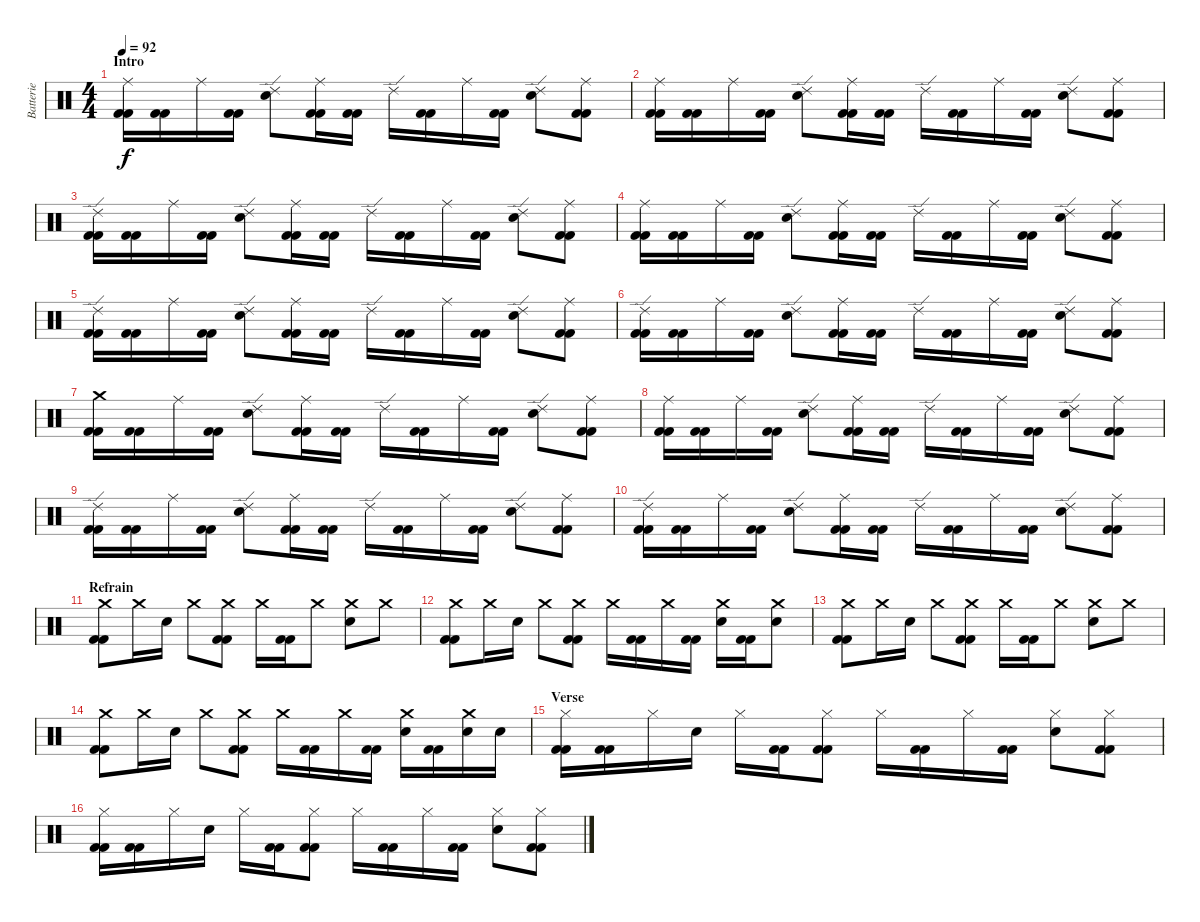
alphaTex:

\track ("Batterie" "Batterie") {instrument percussion}
\staff {score}
\articulation defaults
\ts (4 4)
\section ("" "Intro")
\tempo 92
\clef neutral
\ks c
("Kick (hit) 2" "Ride (middle)" "Kick (hit) 2").16{dy f} ("Kick (hit) 2" "Kick (hit) 2").16 "Ride (middle)".16 ("Kick (hit) 2" "Kick (hit) 2").16 ("Ride (edge) 2" "Electric Snare (hit)").8 ("Kick (hit) 2" "Ride (middle)" "Kick (hit) 2").16 ("Kick (hit) 2" "Kick (hit) 2").16 "Ride (edge) 2".16 ("Kick (hit) 2" "Kick (hit) 2").16 "Ride (middle)".16 ("Kick (hit) 2" "Kick (hit) 2").16 ("Ride (edge) 2" "Electric Snare (hit)").8 ("Kick (hit) 2" "Ride (middle)" "Kick (hit) 2").8 |
("Kick (hit) 2" "Ride (middle)" "Kick (hit) 2").16 ("Kick (hit) 2" "Kick (hit) 2").16 "Ride (middle)".16 ("Kick (hit) 2" "Kick (hit) 2").16 ("Ride (edge) 2" "Electric Snare (hit)").8 ("Kick (hit) 2" "Ride (middle)" "Kick (hit) 2").16 ("Kick (hit) 2" "Kick (hit) 2").16 "Ride (edge) 2".16 ("Kick (hit) 2" "Kick (hit) 2").16 "Ride (middle)".16 ("Kick (hit) 2" "Kick (hit) 2").16 ("Ride (edge) 2" "Electric Snare (hit)").8 ("Kick (hit) 2" "Ride (middle)" "Kick (hit) 2").8 |
("Kick (hit) 2" "Ride (edge) 2" "Kick (hit) 2").16 ("Kick (hit) 2" "Kick (hit) 2").16 "Ride (middle)".16 ("Kick (hit) 2" "Kick (hit) 2").16 ("Ride (edge) 2" "Electric Snare (hit)").8 ("Kick (hit) 2" "Ride (middle)" "Kick (hit) 2").16 ("Kick (hit) 2" "Kick (hit) 2").16 "Ride (edge) 2".16 ("Kick (hit) 2" "Kick (hit) 2").16 "Ride (middle)".16 ("Kick (hit) 2" "Kick (hit) 2").16 ("Ride (edge) 2" "Electric Snare (hit)").8 ("Kick (hit) 2" "Ride (middle)" "Kick (hit) 2").8 |
("Kick (hit) 2" "Ride (middle)" "Kick (hit) 2").16 ("Kick (hit) 2" "Kick (hit) 2").16 "Ride (middle)".16 ("Kick (hit) 2" "Kick (hit) 2").16 ("Ride (edge) 2" "Electric Snare (hit)").8 ("Kick (hit) 2" "Ride (middle)" "Kick (hit) 2").16 ("Kick (hit) 2" "Kick (hit) 2").16 "Ride (edge) 2".16 ("Kick (hit) 2" "Kick (hit) 2").16 "Ride (middle)".16 ("Kick (hit) 2" "Kick (hit) 2").16 ("Ride (edge) 2" "Electric Snare (hit)").8 ("Kick (hit) 2" "Ride (middle)" "Kick (hit) 2").8 |
("Kick (hit) 2" "Ride (edge) 2" "Kick (hit) 2").16 ("Kick (hit) 2" "Kick (hit) 2").16 "Ride (middle)".16 ("Kick (hit) 2" "Kick (hit) 2").16 ("Ride (edge) 2" "Electric Snare (hit)").8 ("Kick (hit) 2" "Ride (middle)" "Kick (hit) 2").16 ("Kick (hit) 2" "Kick (hit) 2").16 "Ride (edge) 2".16 ("Kick (hit) 2" "Kick (hit) 2").16 "Ride (middle)".16 ("Kick (hit) 2" "Kick (hit) 2").16 ("Ride (edge) 2" "Electric Snare (hit)").8 ("Kick (hit) 2" "Ride (middle)" "Kick (hit) 2").8 |
("Kick (hit) 2" "Ride (edge) 2" "Kick (hit) 2").16 ("Kick (hit) 2" "Kick (hit) 2").16 "Ride (middle)".16 ("Kick (hit) 2" "Kick (hit) 2").16 ("Ride (edge) 2" "Electric Snare (hit)").8 ("Kick (hit) 2" "Ride (middle)" "Kick (hit) 2").16 ("Kick (hit) 2" "Kick (hit) 2").16 "Ride (edge) 2".16 ("Kick (hit) 2" "Kick (hit) 2").16 "Ride (middle)".16 ("Kick (hit) 2" "Kick (hit) 2").16 ("Ride (edge) 2" "Electric Snare (hit)").8 ("Kick (hit) 2" "Ride (middle)" "Kick (hit) 2").8 |
("Kick (hit) 2" "Crash medium (hit)" "Kick (hit) 2").16 ("Kick (hit) 2" "Kick (hit) 2").16 "Ride (middle)".16 ("Kick (hit) 2" "Kick (hit) 2").16 ("Ride (edge) 2" "Electric Snare (hit)").8 ("Kick (hit) 2" "Ride (middle)" "Kick (hit) 2").16 ("Kick (hit) 2" "Kick (hit) 2").16 "Ride (edge) 2".16 ("Kick (hit) 2" "Kick (hit) 2").16 "Ride (middle)".16 ("Kick (hit) 2" "Kick (hit) 2").16 ("Ride (edge) 2" "Electric Snare (hit)").8 ("Kick (hit) 2" "Ride (middle)" "Kick (hit) 2").8 |
("Kick (hit) 2" "Ride (middle)" "Kick (hit) 2").16 ("Kick (hit) 2" "Kick (hit) 2").16 "Ride (middle)".16 ("Kick (hit) 2" "Kick (hit) 2").16 ("Ride (edge) 2" "Electric Snare (hit)").8 ("Kick (hit) 2" "Ride (middle)" "Kick (hit) 2").16 ("Kick (hit) 2" "Kick (hit) 2").16 "Ride (edge) 2".16 ("Kick (hit) 2" "Kick (hit) 2").16 "Ride (middle)".16 ("Kick (hit) 2" "Kick (hit) 2").16 ("Ride (edge) 2" "Electric Snare (hit)").8 ("Kick (hit) 2" "Ride (middle)" "Kick (hit) 2").8 |
("Kick (hit) 2" "Ride (edge) 2" "Kick (hit) 2").16 ("Kick (hit) 2" "Kick (hit) 2").16 "Ride (middle)".16 ("Kick (hit) 2" "Kick (hit) 2").16 ("Ride (edge) 2" "Electric Snare (hit)").8 ("Kick (hit) 2" "Ride (middle)" "Kick (hit) 2").16 ("Kick (hit) 2" "Kick (hit) 2").16 "Ride (edge) 2".16 ("Kick (hit) 2" "Kick (hit) 2").16 "Ride (middle)".16 ("Kick (hit) 2" "Kick (hit) 2").16 ("Ride (edge) 2" "Electric Snare (hit)").8 ("Kick (hit) 2" "Ride (middle)" "Kick (hit) 2").8 |
("Kick (hit) 2" "Ride (edge) 2" "Kick (hit) 2").16 ("Kick (hit) 2" "Kick (hit) 2").16 "Ride (middle)".16 ("Kick (hit) 2" "Kick (hit) 2").16 ("Ride (edge) 2" "Electric Snare (hit)").8 ("Kick (hit) 2" "Ride (middle)" "Kick (hit) 2").16 ("Kick (hit) 2" "Kick (hit) 2").16 "Ride (edge) 2".16 ("Kick (hit) 2" "Kick (hit) 2").16 "Ride (middle)".16 ("Kick (hit) 2" "Kick (hit) 2").16 ("Ride (edge) 2" "Electric Snare (hit)").8 ("Kick (hit) 2" "Ride (middle)" "Kick (hit) 2").8 |
\section ("" "Refrain")
("Kick (hit) 2" "Crash medium (hit)" "Kick (hit) 2").8 "Crash medium (hit)".16 "Electric Snare (hit)".16 "Crash medium (hit)".8 ("Kick (hit) 2" "Crash medium (hit)" "Kick (hit) 2").8 "Crash medium (hit)".16 ("Kick (hit) 2" "Kick (hit) 2").16 "Crash medium (hit)".8 ("Crash medium (hit)" "Electric Snare (hit)").8 "Crash medium (hit)".8 |
("Kick (hit) 2" "Crash medium (hit)" "Kick (hit) 2").8 "Crash medium (hit)".16 "Electric Snare (hit)".16 "Crash medium (hit)".8 ("Kick (hit) 2" "Crash medium (hit)" "Kick (hit) 2").8 "Crash medium (hit)".16 ("Kick (hit) 2" "Kick (hit) 2").16 "Crash medium (hit)".16 ("Kick (hit) 2" "Kick (hit) 2").16 ("Crash medium (hit)" "Electric Snare (hit)").16 ("Kick (hit) 2" "Kick (hit) 2").16 ("Crash medium (hit)" "Electric Snare (hit)").8 |
("Kick (hit) 2" "Crash medium (hit)" "Kick (hit) 2").8 "Crash medium (hit)".16 "Electric Snare (hit)".16 "Crash medium (hit)".8 ("Kick (hit) 2" "Crash medium (hit)" "Kick (hit) 2").8 "Crash medium (hit)".16 ("Kick (hit) 2" "Kick (hit) 2").16 "Crash medium (hit)".8 ("Crash medium (hit)" "Electric Snare (hit)").8 "Crash medium (hit)".8 |
("Kick (hit) 2" "Crash medium (hit)" "Kick (hit) 2").8 "Crash medium (hit)".16 "Electric Snare (hit)".16 "Crash medium (hit)".8 ("Kick (hit) 2" "Crash medium (hit)" "Kick (hit) 2").8 "Crash medium (hit)".16 ("Kick (hit) 2" "Kick (hit) 2").16 "Crash medium (hit)".16 ("Kick (hit) 2" "Kick (hit) 2").16 ("Crash medium (hit)" "Electric Snare (hit)").16 ("Kick (hit) 2" "Kick (hit) 2").16 ("Crash medium (hit)" "Electric Snare (hit)").16 "Electric Snare (hit)".16 |
\section ("" "Verse")
("Kick (hit) 2" "Hi-Hat (closed)" "Kick (hit) 2").16 ("Kick (hit) 2" "Kick (hit) 2").16 "Hi-Hat (closed)".16 "Electric Snare (hit)".16 "Hi-Hat (closed)".16 ("Kick (hit) 2" "Kick (hit) 2").16 ("Kick (hit) 2" "Hi-Hat (closed)" "Kick (hit) 2").8 "Hi-Hat (closed)".16 ("Kick (hit) 2" "Kick (hit) 2").16 "Hi-Hat (closed)".16 ("Kick (hit) 2" "Kick (hit) 2").16 ("Hi-Hat (closed)" "Electric Snare (hit)").8 ("Kick (hit) 2" "Hi-Hat (closed)" "Kick (hit) 2").8 |
("Kick (hit) 2" "Hi-Hat (closed)" "Kick (hit) 2").16 ("Kick (hit) 2" "Kick (hit) 2").16 "Hi-Hat (closed)".16 "Electric Snare (hit)".16 "Hi-Hat (closed)".16 ("Kick (hit) 2" "Kick (hit) 2").16 ("Kick (hit) 2" "Hi-Hat (closed)" "Kick (hit) 2").8 "Hi-Hat (closed)".16 ("Kick (hit) 2" "Kick (hit) 2").16 "Hi-Hat (closed)".16 ("Kick (hit) 2" "Kick (hit) 2").16 ("Hi-Hat (closed)" "Electric Snare (hit)").8 ("Kick (hit) 2" "Hi-Hat (closed)" "Kick (hit) 2").8
